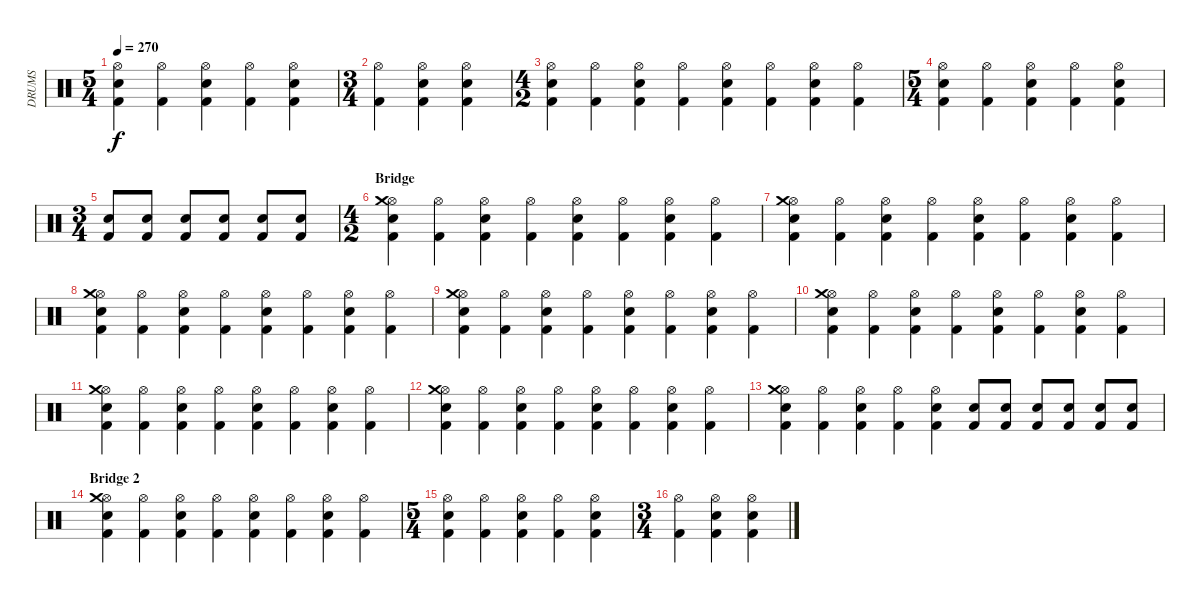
\track ("DRUMS" "DRUMS") {instrument percussion}
\staff {score}
\articulation defaults
\ts (5 4)
\tempo 270
\clef neutral
\ks c
("Hi-Hat (open)" "Snare (hit) 2" "Kick (hit) 2").4{dy f} ("Hi-Hat (open)" "Kick (hit) 2").4 ("Hi-Hat (open)" "Snare (hit) 2" "Kick (hit) 2").4 ("Hi-Hat (open)" "Kick (hit) 2").4 ("Hi-Hat (open)" "Snare (hit) 2" "Kick (hit) 2").4 |
\ts (3 4)
("Hi-Hat (open)" "Kick (hit) 2").4 ("Hi-Hat (open)" "Snare (hit) 2" "Kick (hit) 2").4 ("Hi-Hat (open)" "Snare (hit) 2" "Kick (hit) 2").4 |
\ts (4 2)
("Hi-Hat (open)" "Snare (hit) 2" "Kick (hit) 2").4 ("Hi-Hat (open)" "Kick (hit) 2").4 ("Hi-Hat (open)" "Snare (hit) 2" "Kick (hit) 2").4 ("Hi-Hat (open)" "Kick (hit) 2").4 ("Hi-Hat (open)" "Snare (hit) 2" "Kick (hit) 2").4 ("Hi-Hat (open)" "Kick (hit) 2").4 ("Hi-Hat (open)" "Snare (hit) 2" "Kick (hit) 2").4 ("Hi-Hat (open)" "Kick (hit) 2").4 |
\ts (5 4)
("Hi-Hat (open)" "Snare (hit) 2" "Kick (hit) 2").4 ("Hi-Hat (open)" "Kick (hit) 2").4 ("Hi-Hat (open)" "Snare (hit) 2" "Kick (hit) 2").4 ("Hi-Hat (open)" "Kick (hit) 2").4 ("Hi-Hat (open)" "Snare (hit) 2" "Kick (hit) 2").4 |
\ts (3 4)
("Snare (hit) 2" "Kick (hit) 2").8 ("Snare (hit) 2" "Kick (hit) 2").8 ("Snare (hit) 2" "Kick (hit) 2").8 ("Snare (hit) 2" "Kick (hit) 2").8 ("Snare (hit) 2" "Kick (hit) 2").8 ("Snare (hit) 2" "Kick (hit) 2").8 |
\ts (4 2)
\section ("" "Bridge")
("Hi-Hat (open)" "Snare (hit) 2" "Crash medium (hit)" "Kick (hit) 2").4 ("Hi-Hat (open)" "Kick (hit) 2").4 ("Hi-Hat (open)" "Snare (hit) 2" "Kick (hit) 2").4 ("Hi-Hat (open)" "Kick (hit) 2").4 ("Hi-Hat (open)" "Snare (hit) 2" "Kick (hit) 2").4 ("Hi-Hat (open)" "Kick (hit) 2").4 ("Hi-Hat (open)" "Snare (hit) 2" "Kick (hit) 2").4 ("Hi-Hat (open)" "Kick (hit) 2").4 |
("Hi-Hat (open)" "Snare (hit) 2" "Crash medium (hit)" "Kick (hit) 2").4 ("Hi-Hat (open)" "Kick (hit) 2").4 ("Hi-Hat (open)" "Snare (hit) 2" "Kick (hit) 2").4 ("Hi-Hat (open)" "Kick (hit) 2").4 ("Hi-Hat (open)" "Snare (hit) 2" "Kick (hit) 2").4 ("Hi-Hat (open)" "Kick (hit) 2").4 ("Hi-Hat (open)" "Snare (hit) 2" "Kick (hit) 2").4 ("Hi-Hat (open)" "Kick (hit) 2").4 |
("Hi-Hat (open)" "Snare (hit) 2" "Crash medium (hit)" "Kick (hit) 2").4 ("Hi-Hat (open)" "Kick (hit) 2").4 ("Hi-Hat (open)" "Snare (hit) 2" "Kick (hit) 2").4 ("Hi-Hat (open)" "Kick (hit) 2").4 ("Hi-Hat (open)" "Snare (hit) 2" "Kick (hit) 2").4 ("Hi-Hat (open)" "Kick (hit) 2").4 ("Hi-Hat (open)" "Snare (hit) 2" "Kick (hit) 2").4 ("Hi-Hat (open)" "Kick (hit) 2").4 |
("Hi-Hat (open)" "Snare (hit) 2" "Crash medium (hit)" "Kick (hit) 2").4 ("Hi-Hat (open)" "Kick (hit) 2").4 ("Hi-Hat (open)" "Snare (hit) 2" "Kick (hit) 2").4 ("Hi-Hat (open)" "Kick (hit) 2").4 ("Hi-Hat (open)" "Snare (hit) 2" "Kick (hit) 2").4 ("Hi-Hat (open)" "Kick (hit) 2").4 ("Hi-Hat (open)" "Snare (hit) 2" "Kick (hit) 2").4 ("Hi-Hat (open)" "Kick (hit) 2").4 |
("Hi-Hat (open)" "Snare (hit) 2" "Crash medium (hit)" "Kick (hit) 2").4 ("Hi-Hat (open)" "Kick (hit) 2").4 ("Hi-Hat (open)" "Snare (hit) 2" "Kick (hit) 2").4 ("Hi-Hat (open)" "Kick (hit) 2").4 ("Hi-Hat (open)" "Snare (hit) 2" "Kick (hit) 2").4 ("Hi-Hat (open)" "Kick (hit) 2").4 ("Hi-Hat (open)" "Snare (hit) 2" "Kick (hit) 2").4 ("Hi-Hat (open)" "Kick (hit) 2").4 |
("Hi-Hat (open)" "Snare (hit) 2" "Crash medium (hit)" "Kick (hit) 2").4 ("Hi-Hat (open)" "Kick (hit) 2").4 ("Hi-Hat (open)" "Snare (hit) 2" "Kick (hit) 2").4 ("Hi-Hat (open)" "Kick (hit) 2").4 ("Hi-Hat (open)" "Snare (hit) 2" "Kick (hit) 2").4 ("Hi-Hat (open)" "Kick (hit) 2").4 ("Hi-Hat (open)" "Snare (hit) 2" "Kick (hit) 2").4 ("Hi-Hat (open)" "Kick (hit) 2").4 |
("Hi-Hat (open)" "Snare (hit) 2" "Crash medium (hit)" "Kick (hit) 2").4 ("Hi-Hat (open)" "Kick (hit) 2").4 ("Hi-Hat (open)" "Snare (hit) 2" "Kick (hit) 2").4 ("Hi-Hat (open)" "Kick (hit) 2").4 ("Hi-Hat (open)" "Snare (hit) 2" "Kick (hit) 2").4 ("Hi-Hat (open)" "Kick (hit) 2").4 ("Hi-Hat (open)" "Snare (hit) 2" "Kick (hit) 2").4 ("Hi-Hat (open)" "Kick (hit) 2").4 |
("Hi-Hat (open)" "Snare (hit) 2" "Crash medium (hit)" "Kick (hit) 2").4 ("Hi-Hat (open)" "Kick (hit) 2").4 ("Hi-Hat (open)" "Snare (hit) 2" "Kick (hit) 2").4 ("Hi-Hat (open)" "Kick (hit) 2").4 ("Hi-Hat (open)" "Snare (hit) 2" "Kick (hit) 2").4 ("Snare (hit) 2" "Kick (hit) 2").8 ("Snare (hit) 2" "Kick (hit) 2").8 ("Snare (hit) 2" "Kick (hit) 2").8 ("Snare (hit) 2" "Kick (hit) 2").8 ("Snare (hit) 2" "Kick (hit) 2").8 ("Snare (hit) 2" "Kick (hit) 2").8 |
\section ("" "Bridge 2")
("Hi-Hat (open)" "Snare (hit) 2" "Crash medium (hit)" "Kick (hit) 2").4 ("Hi-Hat (open)" "Kick (hit) 2").4 ("Hi-Hat (open)" "Snare (hit) 2" "Kick (hit) 2").4 ("Hi-Hat (open)" "Kick (hit) 2").4 ("Hi-Hat (open)" "Snare (hit) 2" "Kick (hit) 2").4 ("Hi-Hat (open)" "Kick (hit) 2").4 ("Hi-Hat (open)" "Snare (hit) 2" "Kick (hit) 2").4 ("Hi-Hat (open)" "Kick (hit) 2").4 |
\ts (5 4)
("Hi-Hat (open)" "Snare (hit) 2" "Kick (hit) 2").4 ("Hi-Hat (open)" "Kick (hit) 2").4 ("Hi-Hat (open)" "Snare (hit) 2" "Kick (hit) 2").4 ("Hi-Hat (open)" "Kick (hit) 2").4 ("Hi-Hat (open)" "Snare (hit) 2" "Kick (hit) 2").4 |
\ts (3 4)
("Hi-Hat (open)" "Kick (hit) 2").4 ("Hi-Hat (open)" "Snare (hit) 2" "Kick (hit) 2").4 ("Hi-Hat (open)" "Snare (hit) 2" "Kick (hit) 2").4
